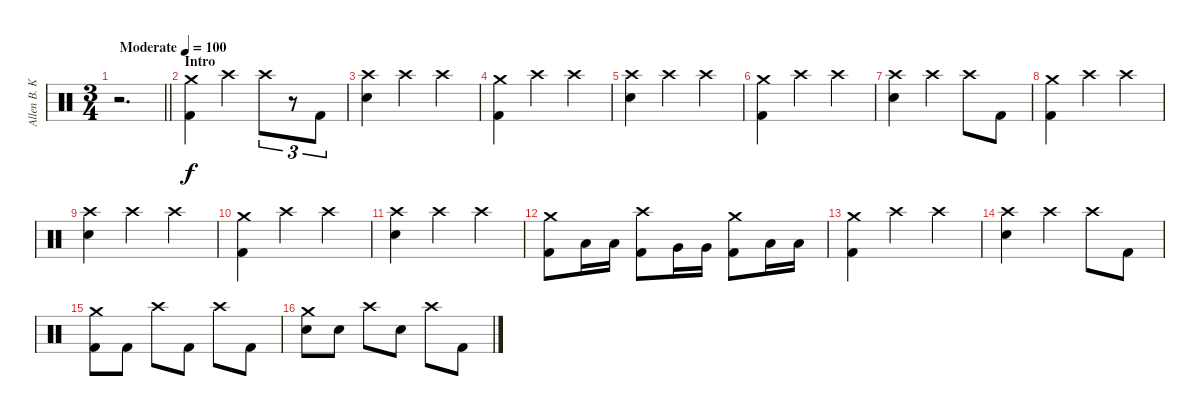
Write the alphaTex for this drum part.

\track ("Allen B. Konstanz (Drums)" "Allen B. K") {instrument percussion}
\staff {score}
\articulation defaults
\ts (3 4)
\tempo (100 "Moderate")
\clef neutral
\barLineRight lightlight
\ks c
r.2{d dy f} |
\section ("" "Intro")
("Crash medium (hit)" "Kick (hit) 2").4 "Crash high (hit)".4 "Crash high (hit)".8{tu (3 2)} r.8{tu (3 2)} "Kick (hit) 2".8{tu (3 2)} |
("Crash high (hit)" "Snare (hit) 2").4 "Crash high (hit)".4 "Crash high (hit)".4 |
("Crash medium (hit)" "Kick (hit) 2").4 "Crash high (hit)".4 "Crash high (hit)".4 |
("Crash high (hit)" "Snare (hit) 2").4 "Crash high (hit)".4 "Crash high (hit)".4 |
("Crash medium (hit)" "Kick (hit) 2").4 "Crash high (hit)".4 "Crash high (hit)".4 |
("Crash high (hit)" "Snare (hit) 2").4 "Crash high (hit)".4 "Crash high (hit)".8 "Kick (hit) 2".8 |
("Crash medium (hit)" "Kick (hit) 2").4 "Crash high (hit)".4 "Crash high (hit)".4 |
("Crash high (hit)" "Snare (hit) 2").4 "Crash high (hit)".4 "Crash high (hit)".4 |
("Crash medium (hit)" "Kick (hit) 2").4 "Crash high (hit)".4 "Crash high (hit)".4 |
("Crash high (hit)" "Snare (hit) 2").4 "Crash high (hit)".4 "Crash high (hit)".4 |
("Crash medium (hit)" "Kick (hit) 2").8 "Low Tom (hit)".16 "Low Tom (hit)".16 ("Crash high (hit)" "Kick (hit) 2").8 "Very Low Tom (hit)".16 "Very Low Tom (hit)".16 ("Crash medium (hit)" "Kick (hit) 2").8 "Low Floor Tom (hit)".16 "Low Floor Tom (hit)".16 |
("Crash medium (hit)" "Kick (hit) 2").4 "Crash high (hit)".4 "Crash high (hit)".4 |
("Crash high (hit)" "Snare (hit) 2").4 "Crash high (hit)".4 "Crash high (hit)".8 "Kick (hit) 2".8 |
("Crash medium (hit)" "Kick (hit) 2").8 "Kick (hit) 2".8 "Crash high (hit)".8 "Kick (hit) 2".8 "Crash high (hit)".8 "Kick (hit) 2".8 |
("Crash medium (hit)" "Snare (hit) 2").8 "Snare (hit) 2".8 "Crash high (hit)".8 "Snare (hit) 2".8 "Crash high (hit)".8 "Kick (hit) 2".8
